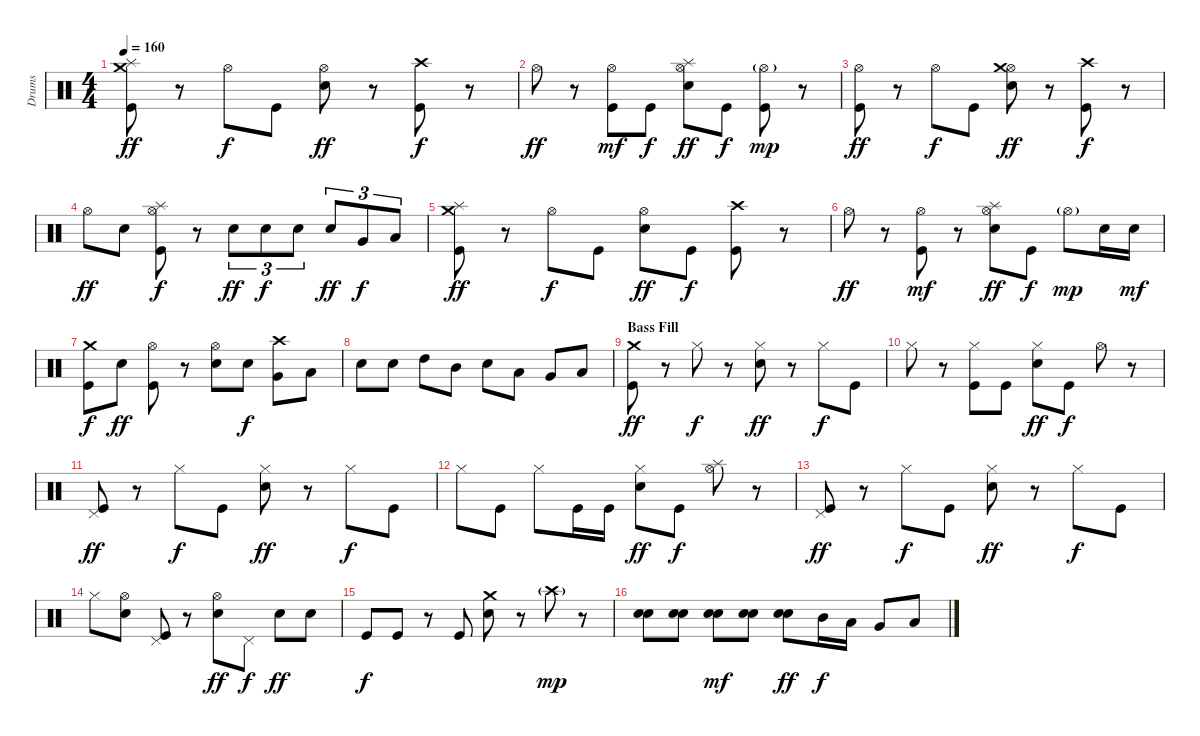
\track ("Drums" "Drums") {instrument percussion}
\staff {score}
\articulation defaults
\ts (4 4)
\tempo 160
\clef neutral
\ks c
("Kick (hit)" "Splash (hit)" "Crash medium (hit)").8{dy ff} r.8 "Hi-Hat (open)".8{dy f} "Kick (hit)".8 ("Electric Snare (hit)" "Hi-Hat (open)").8{dy ff} r.8 ("Kick (hit)" "Crash high (hit)").8{dy f} r.8 |
"Hi-Hat (open)".8{dy ff} r.8 ("Kick (hit)" "Hi-Hat (open)").8{dy mf} "Kick (hit)".8{dy f} ("Electric Snare (hit)" "Hi-Hat (open)" "Splash (hit)").8{dy ff} "Kick (hit)".8{dy f} ("Kick (hit)" "Hi-Hat (open)"{g}).8{dy mp} r.8 |
("Kick (hit)" "Hi-Hat (open)").8{dy ff} r.8 "Hi-Hat (open)".8{dy f} "Kick (hit)".8 ("Electric Snare (hit)" "Hi-Hat (open)" "Crash medium (hit)").8{dy ff} r.8 ("Kick (hit)" "Crash high (hit)").8{dy f} r.8 |
"Hi-Hat (open)".8{dy ff} "Electric Snare (hit)".8 ("Kick (hit)" "Hi-Hat (open)" "Splash (hit)").8{dy f} r.8 "Electric Snare (hit)".8{tu (3 2) dy ff} "Electric Snare (hit)".8{tu (3 2) dy f} "Electric Snare (hit)".8{tu (3 2)} "Electric Snare (hit)".8{tu (3 2) dy ff} "Very Low Tom (hit)".8{tu (3 2) dy f} "Low Floor Tom (hit)".8{tu (3 2)} |
("Kick (hit)" "Splash (hit)" "Crash medium (hit)").8{dy ff} r.8 "Hi-Hat (open)".8{dy f} "Kick (hit)".8 ("Electric Snare (hit)" "Hi-Hat (open)").8{dy ff} "Kick (hit)".8{dy f} ("Kick (hit)" "Crash high (hit)").8 r.8 |
"Hi-Hat (open)".8{dy ff} r.8 ("Kick (hit)" "Hi-Hat (open)").8{dy mf} r.8 ("Electric Snare (hit)" "Hi-Hat (open)" "Splash (hit)").8{dy ff} "Kick (hit)".8{dy f} "Hi-Hat (open)"{g}.8{dy mp} "Electric Snare (hit)".16 "Electric Snare (hit)".16{dy mf} |
("Kick (hit)" "Crash medium (hit)").8{dy f} "Electric Snare (hit)".8{dy ff} ("Kick (hit)" "Hi-Hat (open)").8 r.8 ("Electric Snare (hit)" "Hi-Hat (open)").8 "Electric Snare (hit)".8{dy f} ("Very Low Tom (hit)" "Crash high (hit)").8 "Low Floor Tom (hit)".8 |
"Electric Snare (hit)".8 "Electric Snare (hit)".8 "High Tom (hit)".8 "Mid Tom (hit)".8 "Electric Snare (hit)".8 "Low Tom (hit)".8 "Very Low Tom (hit)".8 "Low Floor Tom (hit)".8 |
\section ("" "Bass Fill")
("Kick (hit)" "Crash medium (hit)").8{dy ff} r.8 "Hi-Hat (closed)".8{dy f} r.8 ("Electric Snare (hit)" "Hi-Hat (closed)").8{dy ff} r.8 "Hi-Hat (closed)".8{dy f} "Kick (hit)".8 |
"Hi-Hat (closed)".8 r.8 ("Kick (hit)" "Hi-Hat (closed)").8 "Kick (hit)".8 ("Electric Snare (hit)" "Hi-Hat (closed)").8{dy ff} "Kick (hit)".8{dy f} "Hi-Hat (open)".8 r.8 |
("Kick (hit)" "Pedal Hi-Hat (hit)").8{dy ff} r.8 "Hi-Hat (closed)".8{dy f} "Kick (hit)".8 ("Electric Snare (hit)" "Hi-Hat (closed)").8{dy ff} r.8 "Hi-Hat (closed)".8{dy f} "Kick (hit)".8 |
"Hi-Hat (closed)".8 "Kick (hit)".8 "Hi-Hat (closed)".8 "Kick (hit)".16 "Kick (hit)".16 ("Electric Snare (hit)" "Hi-Hat (closed)").8{dy ff} "Kick (hit)".8{dy f} ("Hi-Hat (open)" "Splash (hit)").8 r.8 |
("Kick (hit)" "Pedal Hi-Hat (hit)").8{dy ff} r.8 "Hi-Hat (closed)".8{dy f} "Kick (hit)".8 ("Electric Snare (hit)" "Hi-Hat (closed)").8{dy ff} r.8 "Hi-Hat (closed)".8{dy f} "Kick (hit)".8 |
"Hi-Hat (closed)".8 ("Electric Snare (hit)" "Hi-Hat (open)").8 ("Kick (hit)" "Pedal Hi-Hat (hit)").8 r.8 ("Electric Snare (hit)" "Hi-Hat (open)").8{dy ff} "Pedal Hi-Hat (hit)".8{dy f} "Electric Snare (hit)".8{dy ff} "Electric Snare (hit)".8 |
"Kick (hit)".8{dy f} "Kick (hit)".8 r.8 "Kick (hit)".8 ("Electric Snare (hit)" "Crash medium (hit)").8 r.8 "Crash high (hit)"{g}.8{dy mp} r.8 |
("Electric Snare (hit)" "Electric Snare (hit)").8 ("Electric Snare (hit)" "Electric Snare (hit)").8 ("Electric Snare (hit)" "Electric Snare (hit)").8{dy mf} ("Electric Snare (hit)" "Electric Snare (hit)").8 ("Electric Snare (hit)" "Electric Snare (hit)").8{dy ff} "Mid Tom (hit)".16{dy f} "Low Tom (hit)".16 "Very Low Tom (hit)".8 "Low Floor Tom (hit)".8
